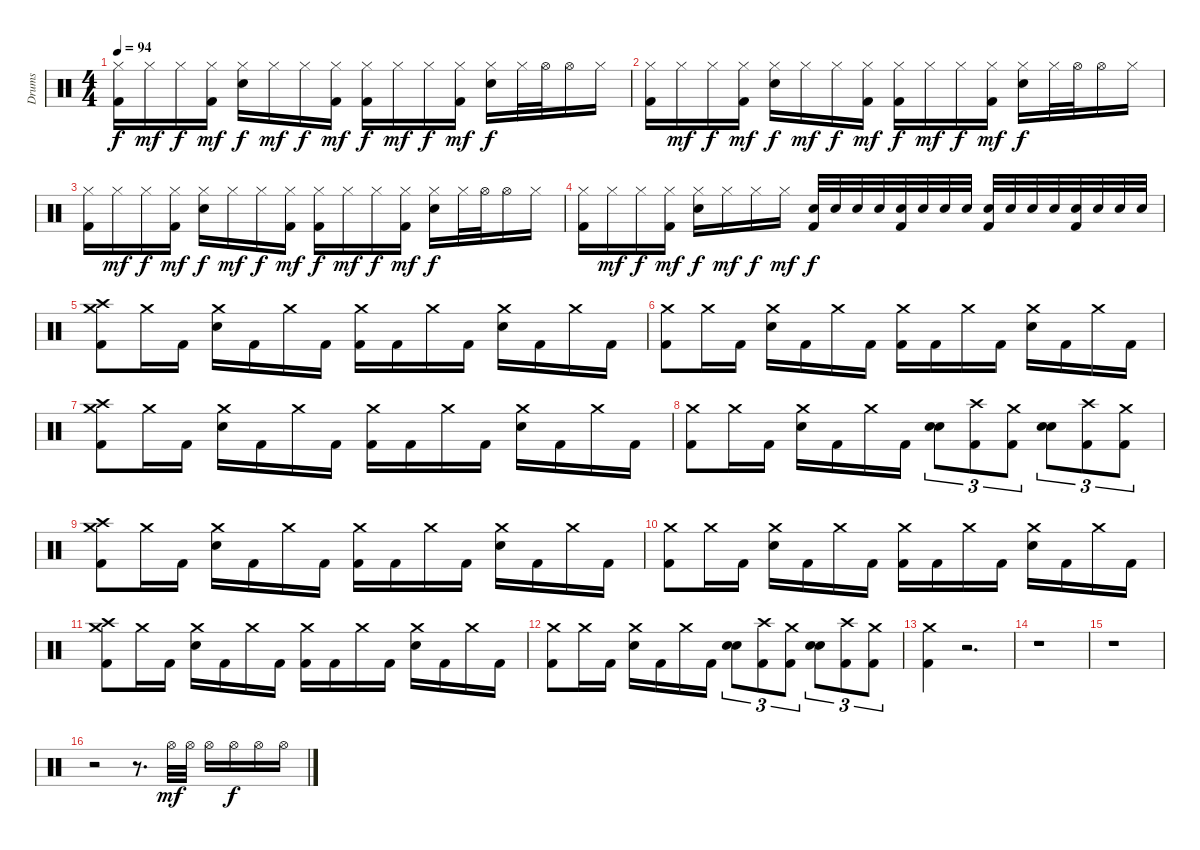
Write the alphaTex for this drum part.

\track ("Drums" "Drums") {instrument percussion}
\staff {score}
\articulation defaults
\ts (4 4)
\tempo 94
\clef neutral
\ks c
("Hi-Hat (closed)" "Kick (hit) 2").16{dy f} "Hi-Hat (closed)".16{dy mf} "Hi-Hat (closed)".16{dy f} ("Kick (hit) 2" "Hi-Hat (closed)").16{dy mf} ("Electric Snare (hit)" "Hi-Hat (closed)").16{dy f} "Hi-Hat (closed)".16{dy mf} "Hi-Hat (closed)".16{dy f} ("Kick (hit) 2" "Hi-Hat (closed)").16{dy mf} ("Kick (hit) 2" "Hi-Hat (closed)").16{dy f} "Hi-Hat (closed)".16{dy mf} "Hi-Hat (closed)".16{dy f} ("Kick (hit) 2" "Hi-Hat (closed)").16{dy mf} ("Electric Snare (hit)" "Hi-Hat (closed)").16{dy f} "Hi-Hat (closed)".32 "Hi-Hat (open)".32 "Hi-Hat (open)".16 "Hi-Hat (closed)".16 |
("Hi-Hat (closed)" "Kick (hit) 2").16 "Hi-Hat (closed)".16{dy mf} "Hi-Hat (closed)".16{dy f} ("Kick (hit) 2" "Hi-Hat (closed)").16{dy mf} ("Electric Snare (hit)" "Hi-Hat (closed)").16{dy f} "Hi-Hat (closed)".16{dy mf} "Hi-Hat (closed)".16{dy f} ("Kick (hit) 2" "Hi-Hat (closed)").16{dy mf} ("Kick (hit) 2" "Hi-Hat (closed)").16{dy f} "Hi-Hat (closed)".16{dy mf} "Hi-Hat (closed)".16{dy f} ("Kick (hit) 2" "Hi-Hat (closed)").16{dy mf} ("Electric Snare (hit)" "Hi-Hat (closed)").16{dy f} "Hi-Hat (closed)".32 "Hi-Hat (open)".32 "Hi-Hat (open)".16 "Hi-Hat (closed)".16 |
("Hi-Hat (closed)" "Kick (hit) 2").16 "Hi-Hat (closed)".16{dy mf} "Hi-Hat (closed)".16{dy f} ("Kick (hit) 2" "Hi-Hat (closed)").16{dy mf} ("Electric Snare (hit)" "Hi-Hat (closed)").16{dy f} "Hi-Hat (closed)".16{dy mf} "Hi-Hat (closed)".16{dy f} ("Kick (hit) 2" "Hi-Hat (closed)").16{dy mf} ("Kick (hit) 2" "Hi-Hat (closed)").16{dy f} "Hi-Hat (closed)".16{dy mf} "Hi-Hat (closed)".16{dy f} ("Kick (hit) 2" "Hi-Hat (closed)").16{dy mf} ("Electric Snare (hit)" "Hi-Hat (closed)").16{dy f} "Hi-Hat (closed)".32 "Hi-Hat (open)".32 "Hi-Hat (open)".16 "Hi-Hat (closed)".16 |
("Hi-Hat (closed)" "Kick (hit) 2").16 "Hi-Hat (closed)".16{dy mf} "Hi-Hat (closed)".16{dy f} ("Kick (hit) 2" "Hi-Hat (closed)").16{dy mf} ("Electric Snare (hit)" "Hi-Hat (closed)").16{dy f} "Hi-Hat (closed)".16{dy mf} "Hi-Hat (closed)".16{dy f} "Hi-Hat (closed)".16{dy mf} ("Kick (hit) 2" "Electric Snare (hit)").32{dy f} "Electric Snare (hit)".32 "Electric Snare (hit)".32 "Electric Snare (hit)".32 ("Kick (hit) 2" "Electric Snare (hit)").32 "Electric Snare (hit)".32 "Electric Snare (hit)".32 "Electric Snare (hit)".32 ("Kick (hit) 2" "Electric Snare (hit)").32 "Electric Snare (hit)".32 "Electric Snare (hit)".32 "Electric Snare (hit)".32 ("Kick (hit) 2" "Electric Snare (hit)").32 "Electric Snare (hit)".32 "Electric Snare (hit)".32 "Electric Snare (hit)".32 |
("Crash high (hit)" "Crash medium (hit)" "Kick (hit) 2").8 "Crash medium (hit)".16 "Kick (hit) 2".16 ("Crash medium (hit)" "Electric Snare (hit)").16 "Kick (hit) 2".16 "Crash medium (hit)".16 "Kick (hit) 2".16 ("Crash medium (hit)" "Kick (hit) 2").16 "Kick (hit) 2".16 "Crash medium (hit)".16 "Kick (hit) 2".16 ("Electric Snare (hit)" "Crash medium (hit)").16 "Kick (hit) 2".16 "Crash medium (hit)".16 "Kick (hit) 2".16 |
("Crash medium (hit)" "Kick (hit) 2").8 "Crash medium (hit)".16 "Kick (hit) 2".16 ("Crash medium (hit)" "Electric Snare (hit)").16 "Kick (hit) 2".16 "Crash medium (hit)".16 "Kick (hit) 2".16 ("Crash medium (hit)" "Kick (hit) 2").16 "Kick (hit) 2".16 "Crash medium (hit)".16 "Kick (hit) 2".16 ("Electric Snare (hit)" "Crash medium (hit)").16 "Kick (hit) 2".16 "Crash medium (hit)".16 "Kick (hit) 2".16 |
("Crash high (hit)" "Crash medium (hit)" "Kick (hit) 2").8 "Crash medium (hit)".16 "Kick (hit) 2".16 ("Crash medium (hit)" "Electric Snare (hit)").16 "Kick (hit) 2".16 "Crash medium (hit)".16 "Kick (hit) 2".16 ("Crash medium (hit)" "Kick (hit) 2").16 "Kick (hit) 2".16 "Crash medium (hit)".16 "Kick (hit) 2".16 ("Electric Snare (hit)" "Crash medium (hit)").16 "Kick (hit) 2".16 "Crash medium (hit)".16 "Kick (hit) 2".16 |
("Crash medium (hit)" "Kick (hit) 2").8 "Crash medium (hit)".16 "Kick (hit) 2".16 ("Crash medium (hit)" "Electric Snare (hit)").16 "Kick (hit) 2".16 "Crash medium (hit)".16 "Kick (hit) 2".16 ("Snare (hit) 2" "Electric Snare (hit)").8{tu (3 2)} ("Crash high (hit)" "Kick (hit) 2").8{tu (3 2)} ("Crash medium (hit)" "Kick (hit) 2").8{tu (3 2)} ("Snare (hit) 2" "Electric Snare (hit)").8{tu (3 2)} ("Crash high (hit)" "Kick (hit) 2").8{tu (3 2)} ("Crash medium (hit)" "Kick (hit) 2").8{tu (3 2)} |
("Crash high (hit)" "Crash medium (hit)" "Kick (hit) 2").8 "Crash medium (hit)".16 "Kick (hit) 2".16 ("Crash medium (hit)" "Electric Snare (hit)").16 "Kick (hit) 2".16 "Crash medium (hit)".16 "Kick (hit) 2".16 ("Crash medium (hit)" "Kick (hit) 2").16 "Kick (hit) 2".16 "Crash medium (hit)".16 "Kick (hit) 2".16 ("Electric Snare (hit)" "Crash medium (hit)").16 "Kick (hit) 2".16 "Crash medium (hit)".16 "Kick (hit) 2".16 |
("Crash medium (hit)" "Kick (hit) 2").8 "Crash medium (hit)".16 "Kick (hit) 2".16 ("Crash medium (hit)" "Electric Snare (hit)").16 "Kick (hit) 2".16 "Crash medium (hit)".16 "Kick (hit) 2".16 ("Crash medium (hit)" "Kick (hit) 2").16 "Kick (hit) 2".16 "Crash medium (hit)".16 "Kick (hit) 2".16 ("Electric Snare (hit)" "Crash medium (hit)").16 "Kick (hit) 2".16 "Crash medium (hit)".16 "Kick (hit) 2".16 |
("Crash high (hit)" "Crash medium (hit)" "Kick (hit) 2").8 "Crash medium (hit)".16 "Kick (hit) 2".16 ("Crash medium (hit)" "Electric Snare (hit)").16 "Kick (hit) 2".16 "Crash medium (hit)".16 "Kick (hit) 2".16 ("Crash medium (hit)" "Kick (hit) 2").16 "Kick (hit) 2".16 "Crash medium (hit)".16 "Kick (hit) 2".16 ("Electric Snare (hit)" "Crash medium (hit)").16 "Kick (hit) 2".16 "Crash medium (hit)".16 "Kick (hit) 2".16 |
("Crash medium (hit)" "Kick (hit) 2").8 "Crash medium (hit)".16 "Kick (hit) 2".16 ("Crash medium (hit)" "Electric Snare (hit)").16 "Kick (hit) 2".16 "Crash medium (hit)".16 "Kick (hit) 2".16 ("Snare (hit) 2" "Electric Snare (hit)").8{tu (3 2)} ("Crash high (hit)" "Kick (hit) 2").8{tu (3 2)} ("Crash medium (hit)" "Kick (hit) 2").8{tu (3 2)} ("Snare (hit) 2" "Electric Snare (hit)").8{tu (3 2)} ("Crash high (hit)" "Kick (hit) 2").8{tu (3 2)} ("Crash medium (hit)" "Kick (hit) 2").8{tu (3 2)} |
("Crash medium (hit)" "Kick (hit) 2").4 r.2{d} |
r.1 |
r.1 |
r.2 r.8{d} "Hi-Hat (open)".32{dy mf} "Hi-Hat (open)".32 "Hi-Hat (open)".16 "Hi-Hat (open)".16{dy f} "Hi-Hat (open)".16 "Hi-Hat (open)".16
